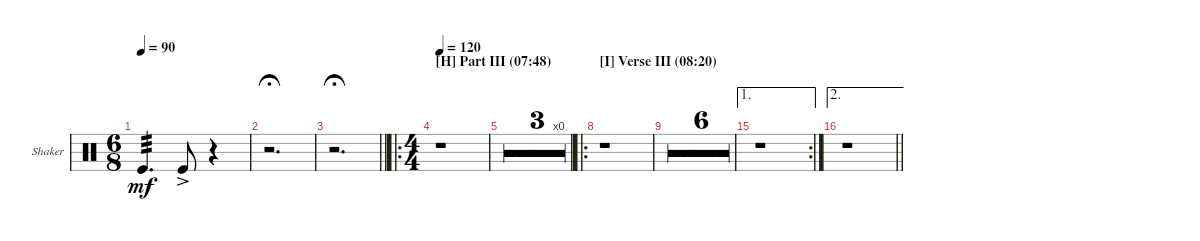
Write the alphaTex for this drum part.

\defaultSystemsLayout 4
\bracketExtendMode groupsimilarinstruments
\firstSystemTrackNameOrientation horizontal
\otherSystemsTrackNameOrientation horizontal
\track ("Shaker" "Shaker") {multiBarRest instrument percussion}
\staff {score}
\articulation defaults
\ts (6 8)
\tempo 90
\clef neutral
\ks c "Kick (hit)".4{d tp 3 dy mf} "Kick (hit)"{ac}.8
r.4 |
r.2{d fermata (medium 1)} |
\barLineRight lightlight
r.2{d fermata (medium 1)} |
\ro
\ts (4 4)
\section ("H" "Part III (07:48)")
\tempo 120
r.1 |
r.1 |
r.1 |
\rc 4
r.1 |
\ro
\section ("I" "Verse III (08:20)")
r.1 |
r.1 |
r.1 |
r.1 |
r.1 |
r.1 |
r.1 |
\ae 1
\rc 2
r.1 |
\ae 2
\barLineRight lightlight
r.1
